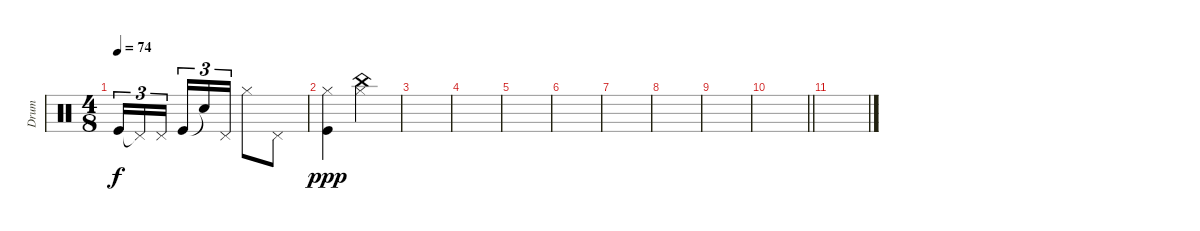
\track ("Drum" "Drum") {instrument percussion}
\staff {score}
\articulation defaults
\ts (4 8)
\tempo 74
\clef neutral
\ks c "Kick (hit)".16{tu (3 2) dy f} "Pedal Hi-Hat (hit)"{t}.16{tu (3 2)} "Pedal Hi-Hat (hit)".16{tu (3 2)} "Kick (hit)".16{tu (3 2)} "Snare (hit)"{t}.16{tu (3 2)} "Pedal Hi-Hat (hit)".16{tu (3 2)} "Hi-Hat (closed)".8 "Pedal Hi-Hat (hit)".8
|
("Hi-Hat (closed)" "Kick (hit)").4{dy ppp} ("China (hit)" "Hi-Hat (closed)").4 |
|
|
|
|
|
|
|
\barLineRight lightlight
|
\section ("" "")
